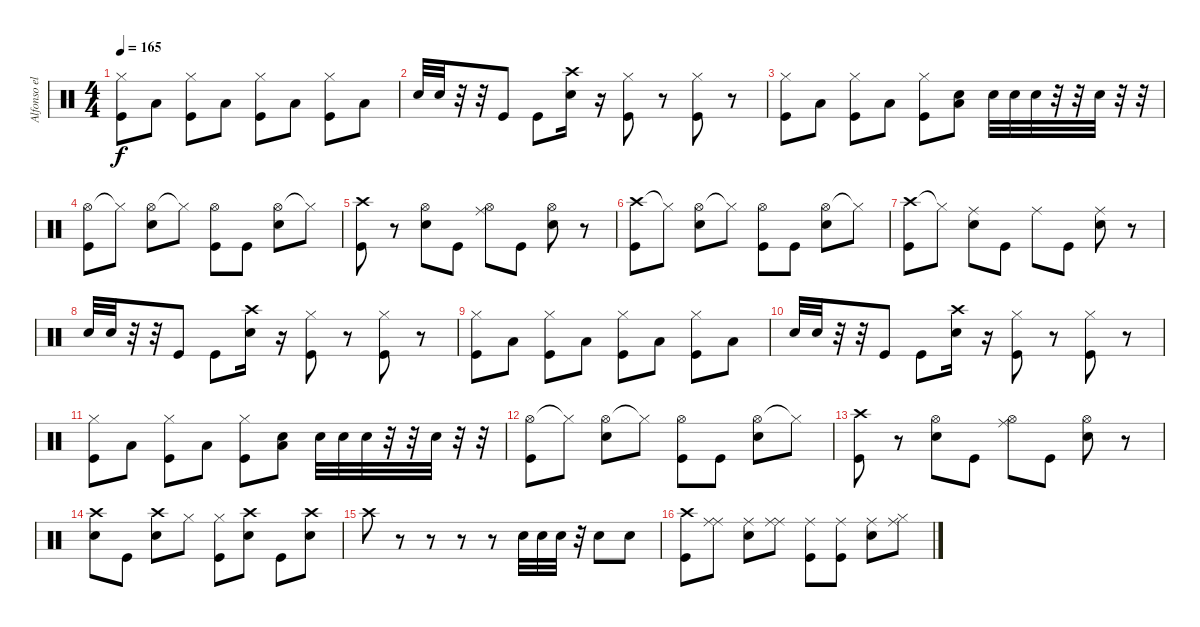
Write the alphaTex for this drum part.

\track ("Alfonso el flaco Andre" "Alfonso el") {instrument percussion}
\staff {score}
\articulation defaults
\ts (4 4)
\tempo 165
\clef neutral
\ks c
("Hi-Hat (closed)" "Kick (hit)").8{dy f} "Low Tom (hit)".8 ("Hi-Hat (closed)" "Kick (hit)").8 "Low Floor Tom (hit)".8 ("Hi-Hat (closed)" "Kick (hit)").8 "Low Floor Tom (hit)".8 ("Hi-Hat (closed)" "Kick (hit)").8 "Low Floor Tom (hit)".8 |
"Snare (hit) 2".32 "Snare (hit) 2".32 r.32 r.32 "Kick (hit)".8 "Kick (hit)".8 ("Crash high (hit)" "Snare (hit) 2").16 r.16 ("Hi-Hat (closed)" "Kick (hit)").8 r.8 ("Hi-Hat (closed)" "Kick (hit)").8 r.8 |
("Hi-Hat (closed)" "Kick (hit)").8 "Low Tom (hit)".8 ("Hi-Hat (closed)" "Kick (hit)").8 "Low Floor Tom (hit)".8 ("Hi-Hat (closed)" "Kick (hit)").8 ("Low Floor Tom (hit)" "Snare (hit) 2").8 "Snare (hit) 2".32 "Snare (hit) 2".32 "Snare (hit) 2".32 r.32 r.32 "Snare (hit) 2".32 r.32 r.32 |
("Hi-Hat (open)" "Kick (hit)").8 "Hi-Hat (closed)"{t}.8 ("Hi-Hat (open)" "Snare (hit) 2").8 "Hi-Hat (closed)"{t}.8 ("Hi-Hat (open)" "Kick (hit)").8 "Kick (hit)".8 ("Hi-Hat (open)" "Snare (hit) 2").8 "Hi-Hat (closed)"{t}.8 |
("Crash high (hit)" "Kick (hit)").8 r.8 ("Hi-Hat (open)" "Snare (hit) 2").8 "Kick (hit)".8 ("Hi-Hat (open)" "Ride (middle)").8 "Kick (hit)".8 ("Hi-Hat (open)" "Snare (hit) 2").8 r.8 |
("Crash high (hit)" "Kick (hit)").8 "Hi-Hat (closed)"{t}.8 ("Hi-Hat (open)" "Snare (hit) 2").8 "Hi-Hat (closed)"{t}.8 ("Hi-Hat (open)" "Kick (hit)").8 "Kick (hit)".8 ("Hi-Hat (open)" "Snare (hit) 2").8 "Hi-Hat (closed)"{t}.8 |
("Crash high (hit)" "Kick (hit)").8 "Hi-Hat (closed)"{t}.8 ("Ride (middle)" "Snare (hit) 2").8 "Kick (hit)".8 "Ride (middle)".8 "Kick (hit)".8 ("Ride (middle)" "Snare (hit) 2").8 r.8 |
"Snare (hit) 2".32 "Snare (hit) 2".32 r.32 r.32 "Kick (hit)".8 "Kick (hit)".8 ("Crash high (hit)" "Snare (hit) 2").16 r.16 ("Hi-Hat (closed)" "Kick (hit)").8 r.8 ("Hi-Hat (closed)" "Kick (hit)").8 r.8 |
("Hi-Hat (closed)" "Kick (hit)").8 "Low Tom (hit)".8 ("Hi-Hat (closed)" "Kick (hit)").8 "Low Floor Tom (hit)".8 ("Hi-Hat (closed)" "Kick (hit)").8 "Low Floor Tom (hit)".8 ("Hi-Hat (closed)" "Kick (hit)").8 "Low Floor Tom (hit)".8 |
"Snare (hit) 2".32 "Snare (hit) 2".32 r.32 r.32 "Kick (hit)".8 "Kick (hit)".8 ("Crash high (hit)" "Snare (hit) 2").16 r.16 ("Hi-Hat (closed)" "Kick (hit)").8 r.8 ("Hi-Hat (closed)" "Kick (hit)").8 r.8 |
("Hi-Hat (closed)" "Kick (hit)").8 "Low Tom (hit)".8 ("Hi-Hat (closed)" "Kick (hit)").8 "Low Floor Tom (hit)".8 ("Hi-Hat (closed)" "Kick (hit)").8 ("Low Floor Tom (hit)" "Snare (hit) 2").8 "Snare (hit) 2".32 "Snare (hit) 2".32 "Snare (hit) 2".32 r.32 r.32 "Snare (hit) 2".32 r.32 r.32 |
("Hi-Hat (open)" "Kick (hit)").8 "Hi-Hat (closed)"{t}.8 ("Hi-Hat (open)" "Snare (hit) 2").8 "Hi-Hat (closed)"{t}.8 ("Hi-Hat (open)" "Kick (hit)").8 "Kick (hit)".8 ("Hi-Hat (open)" "Snare (hit) 2").8 "Hi-Hat (closed)"{t}.8 |
("Crash high (hit)" "Kick (hit)").8 r.8 ("Hi-Hat (open)" "Snare (hit) 2").8 "Kick (hit)".8 ("Hi-Hat (open)" "Ride (middle)").8 "Kick (hit)".8 ("Hi-Hat (open)" "Snare (hit) 2").8 r.8 |
("Crash high (hit)" "Snare (hit) 2").8 "Kick (hit)".8 ("Crash high (hit)" "Snare (hit) 2").8 "Hi-Hat (closed)".8 ("Hi-Hat (closed)" "Kick (hit)").8 ("Snare (hit) 2" "Crash high (hit)").8 "Kick (hit)".8 ("Snare (hit) 2" "Crash high (hit)").8 |
"Crash high (hit)".8 r.8 r.8 r.8 r.8 "Snare (hit) 2".32 "Snare (hit) 2".32 "Snare (hit) 2".32 r.32 "Snare (hit) 2".8 "Snare (hit) 2".8 |
("Crash high (hit)" "Kick (hit)").8 ("Ride (middle)" "Ride (middle)").8 ("Ride (middle)" "Snare (hit) 2").8 ("Ride (middle)" "Ride (middle)").8 ("Ride (middle)" "Kick (hit)").8 ("Ride (middle)" "Kick (hit)").8 ("Ride (middle)" "Snare (hit) 2").8 ("Ride (middle)" "Hi-Hat (closed)").8
